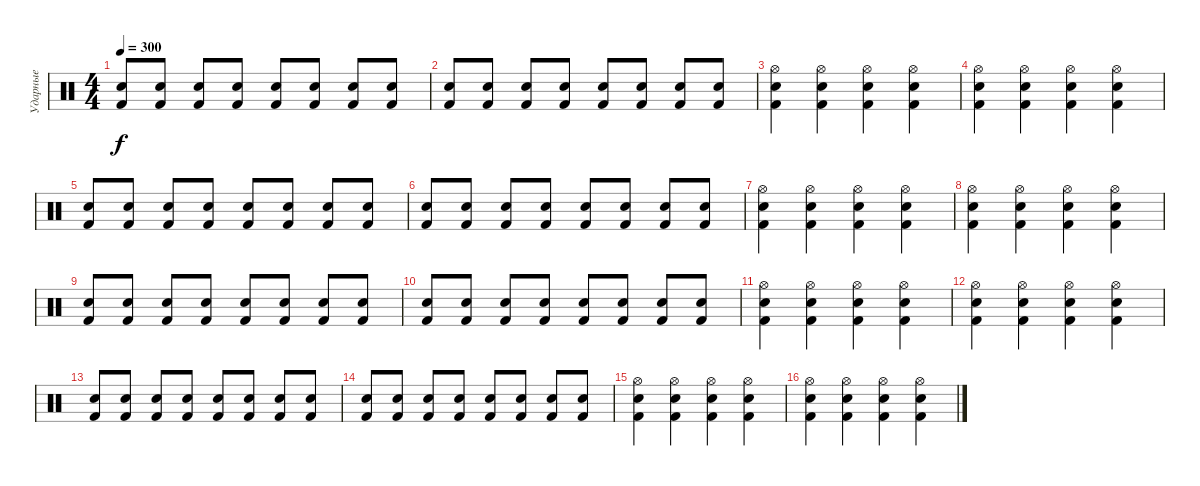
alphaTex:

\track ("Ударные" "Ударные") {instrument percussion}
\staff {score}
\articulation defaults
\ts (4 4)
\tempo 300
\clef neutral
\ks c
("Kick (hit) 2" "Electric Snare (hit)").8{dy f} ("Kick (hit) 2" "Electric Snare (hit)").8 ("Kick (hit) 2" "Electric Snare (hit)").8 ("Kick (hit) 2" "Electric Snare (hit)").8 ("Kick (hit) 2" "Electric Snare (hit)").8 ("Kick (hit) 2" "Electric Snare (hit)").8 ("Kick (hit) 2" "Electric Snare (hit)").8 ("Kick (hit) 2" "Electric Snare (hit)").8 |
("Kick (hit) 2" "Electric Snare (hit)").8 ("Kick (hit) 2" "Electric Snare (hit)").8 ("Kick (hit) 2" "Electric Snare (hit)").8 ("Kick (hit) 2" "Electric Snare (hit)").8 ("Kick (hit) 2" "Electric Snare (hit)").8 ("Kick (hit) 2" "Electric Snare (hit)").8 ("Kick (hit) 2" "Electric Snare (hit)").8 ("Kick (hit) 2" "Electric Snare (hit)").8 |
("Hi-Hat (open)" "Electric Snare (hit)" "Kick (hit) 2").4 ("Hi-Hat (open)" "Electric Snare (hit)" "Kick (hit) 2").4 ("Hi-Hat (open)" "Electric Snare (hit)" "Kick (hit) 2").4 ("Hi-Hat (open)" "Electric Snare (hit)" "Kick (hit) 2").4 |
("Hi-Hat (open)" "Electric Snare (hit)" "Kick (hit) 2").4 ("Hi-Hat (open)" "Electric Snare (hit)" "Kick (hit) 2").4 ("Hi-Hat (open)" "Electric Snare (hit)" "Kick (hit) 2").4 ("Hi-Hat (open)" "Electric Snare (hit)" "Kick (hit) 2").4 |
("Kick (hit) 2" "Electric Snare (hit)").8 ("Kick (hit) 2" "Electric Snare (hit)").8 ("Kick (hit) 2" "Electric Snare (hit)").8 ("Kick (hit) 2" "Electric Snare (hit)").8 ("Kick (hit) 2" "Electric Snare (hit)").8 ("Kick (hit) 2" "Electric Snare (hit)").8 ("Kick (hit) 2" "Electric Snare (hit)").8 ("Kick (hit) 2" "Electric Snare (hit)").8 |
("Kick (hit) 2" "Electric Snare (hit)").8 ("Kick (hit) 2" "Electric Snare (hit)").8 ("Kick (hit) 2" "Electric Snare (hit)").8 ("Kick (hit) 2" "Electric Snare (hit)").8 ("Kick (hit) 2" "Electric Snare (hit)").8 ("Kick (hit) 2" "Electric Snare (hit)").8 ("Kick (hit) 2" "Electric Snare (hit)").8 ("Kick (hit) 2" "Electric Snare (hit)").8 |
("Hi-Hat (open)" "Electric Snare (hit)" "Kick (hit) 2").4 ("Hi-Hat (open)" "Electric Snare (hit)" "Kick (hit) 2").4 ("Hi-Hat (open)" "Electric Snare (hit)" "Kick (hit) 2").4 ("Hi-Hat (open)" "Electric Snare (hit)" "Kick (hit) 2").4 |
("Hi-Hat (open)" "Electric Snare (hit)" "Kick (hit) 2").4 ("Hi-Hat (open)" "Electric Snare (hit)" "Kick (hit) 2").4 ("Hi-Hat (open)" "Electric Snare (hit)" "Kick (hit) 2").4 ("Hi-Hat (open)" "Electric Snare (hit)" "Kick (hit) 2").4 |
("Kick (hit) 2" "Electric Snare (hit)").8 ("Kick (hit) 2" "Electric Snare (hit)").8 ("Kick (hit) 2" "Electric Snare (hit)").8 ("Kick (hit) 2" "Electric Snare (hit)").8 ("Kick (hit) 2" "Electric Snare (hit)").8 ("Kick (hit) 2" "Electric Snare (hit)").8 ("Kick (hit) 2" "Electric Snare (hit)").8 ("Kick (hit) 2" "Electric Snare (hit)").8 |
("Kick (hit) 2" "Electric Snare (hit)").8 ("Kick (hit) 2" "Electric Snare (hit)").8 ("Kick (hit) 2" "Electric Snare (hit)").8 ("Kick (hit) 2" "Electric Snare (hit)").8 ("Kick (hit) 2" "Electric Snare (hit)").8 ("Kick (hit) 2" "Electric Snare (hit)").8 ("Kick (hit) 2" "Electric Snare (hit)").8 ("Kick (hit) 2" "Electric Snare (hit)").8 |
("Hi-Hat (open)" "Electric Snare (hit)" "Kick (hit) 2").4 ("Hi-Hat (open)" "Electric Snare (hit)" "Kick (hit) 2").4 ("Hi-Hat (open)" "Electric Snare (hit)" "Kick (hit) 2").4 ("Hi-Hat (open)" "Electric Snare (hit)" "Kick (hit) 2").4 |
("Hi-Hat (open)" "Electric Snare (hit)" "Kick (hit) 2").4 ("Hi-Hat (open)" "Electric Snare (hit)" "Kick (hit) 2").4 ("Hi-Hat (open)" "Electric Snare (hit)" "Kick (hit) 2").4 ("Hi-Hat (open)" "Electric Snare (hit)" "Kick (hit) 2").4 |
("Kick (hit) 2" "Electric Snare (hit)").8 ("Kick (hit) 2" "Electric Snare (hit)").8 ("Kick (hit) 2" "Electric Snare (hit)").8 ("Kick (hit) 2" "Electric Snare (hit)").8 ("Kick (hit) 2" "Electric Snare (hit)").8 ("Kick (hit) 2" "Electric Snare (hit)").8 ("Kick (hit) 2" "Electric Snare (hit)").8 ("Kick (hit) 2" "Electric Snare (hit)").8 |
("Kick (hit) 2" "Electric Snare (hit)").8 ("Kick (hit) 2" "Electric Snare (hit)").8 ("Kick (hit) 2" "Electric Snare (hit)").8 ("Kick (hit) 2" "Electric Snare (hit)").8 ("Kick (hit) 2" "Electric Snare (hit)").8 ("Kick (hit) 2" "Electric Snare (hit)").8 ("Kick (hit) 2" "Electric Snare (hit)").8 ("Kick (hit) 2" "Electric Snare (hit)").8 |
("Hi-Hat (open)" "Electric Snare (hit)" "Kick (hit) 2").4 ("Hi-Hat (open)" "Electric Snare (hit)" "Kick (hit) 2").4 ("Hi-Hat (open)" "Electric Snare (hit)" "Kick (hit) 2").4 ("Hi-Hat (open)" "Electric Snare (hit)" "Kick (hit) 2").4 |
("Hi-Hat (open)" "Electric Snare (hit)" "Kick (hit) 2").4 ("Hi-Hat (open)" "Electric Snare (hit)" "Kick (hit) 2").4 ("Hi-Hat (open)" "Electric Snare (hit)" "Kick (hit) 2").4 ("Hi-Hat (open)" "Electric Snare (hit)" "Kick (hit) 2").4
